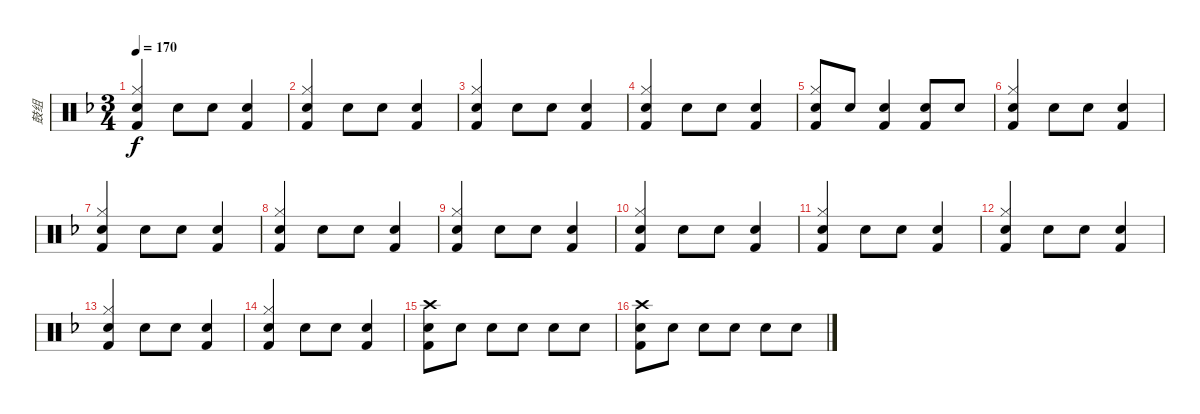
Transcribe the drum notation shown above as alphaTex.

\track ("鼓组" "鼓组") {instrument percussion}
\staff {score}
\articulation defaults
\ts (3 4)
\tempo 170
\clef neutral
\ks f
("Snare (hit) 2" "Hi-Hat (closed)" "Kick (hit) 2").4{dy f} "Snare (hit) 2".8 "Snare (hit) 2".8 ("Snare (hit) 2" "Kick (hit) 2").4 |
("Snare (hit) 2" "Hi-Hat (closed)" "Kick (hit) 2").4 "Snare (hit) 2".8 "Snare (hit) 2".8 ("Snare (hit) 2" "Kick (hit) 2").4 |
("Snare (hit) 2" "Hi-Hat (closed)" "Kick (hit) 2").4 "Snare (hit) 2".8 "Snare (hit) 2".8 ("Snare (hit) 2" "Kick (hit) 2").4 |
("Snare (hit) 2" "Hi-Hat (closed)" "Kick (hit) 2").4 "Snare (hit) 2".8 "Snare (hit) 2".8 ("Snare (hit) 2" "Kick (hit) 2").4 |
("Snare (hit) 2" "Hi-Hat (closed)" "Kick (hit) 2").8 "Snare (hit) 2".8 ("Snare (hit) 2" "Kick (hit) 2").4 ("Snare (hit) 2" "Kick (hit) 2").8 "Snare (hit) 2".8 |
("Snare (hit) 2" "Hi-Hat (closed)" "Kick (hit) 2").4 "Snare (hit) 2".8 "Snare (hit) 2".8 ("Snare (hit) 2" "Kick (hit) 2").4 |
("Snare (hit) 2" "Hi-Hat (closed)" "Kick (hit) 2").4 "Snare (hit) 2".8 "Snare (hit) 2".8 ("Snare (hit) 2" "Kick (hit) 2").4 |
("Snare (hit) 2" "Hi-Hat (closed)" "Kick (hit) 2").4 "Snare (hit) 2".8 "Snare (hit) 2".8 ("Snare (hit) 2" "Kick (hit) 2").4 |
("Snare (hit) 2" "Hi-Hat (closed)" "Kick (hit) 2").4 "Snare (hit) 2".8 "Snare (hit) 2".8 ("Snare (hit) 2" "Kick (hit) 2").4 |
("Snare (hit) 2" "Hi-Hat (closed)" "Kick (hit) 2").4 "Snare (hit) 2".8 "Snare (hit) 2".8 ("Snare (hit) 2" "Kick (hit) 2").4 |
("Snare (hit) 2" "Hi-Hat (closed)" "Kick (hit) 2").4 "Snare (hit) 2".8 "Snare (hit) 2".8 ("Snare (hit) 2" "Kick (hit) 2").4 |
("Snare (hit) 2" "Hi-Hat (closed)" "Kick (hit) 2").4 "Snare (hit) 2".8 "Snare (hit) 2".8 ("Snare (hit) 2" "Kick (hit) 2").4 |
("Snare (hit) 2" "Hi-Hat (closed)" "Kick (hit) 2").4 "Snare (hit) 2".8 "Snare (hit) 2".8 ("Snare (hit) 2" "Kick (hit) 2").4 |
("Snare (hit) 2" "Hi-Hat (closed)" "Kick (hit) 2").4 "Snare (hit) 2".8 "Snare (hit) 2".8 ("Snare (hit) 2" "Kick (hit) 2").4 |
("Snare (hit) 2" "Crash high (hit)" "Kick (hit) 2").8 "Snare (hit) 2".8 "Snare (hit) 2".8 "Snare (hit) 2".8 "Snare (hit) 2".8 "Snare (hit) 2".8 |
("Snare (hit) 2" "Crash high (hit)" "Kick (hit) 2").8 "Snare (hit) 2".8 "Snare (hit) 2".8 "Snare (hit) 2".8 "Snare (hit) 2".8 "Snare (hit) 2".8
